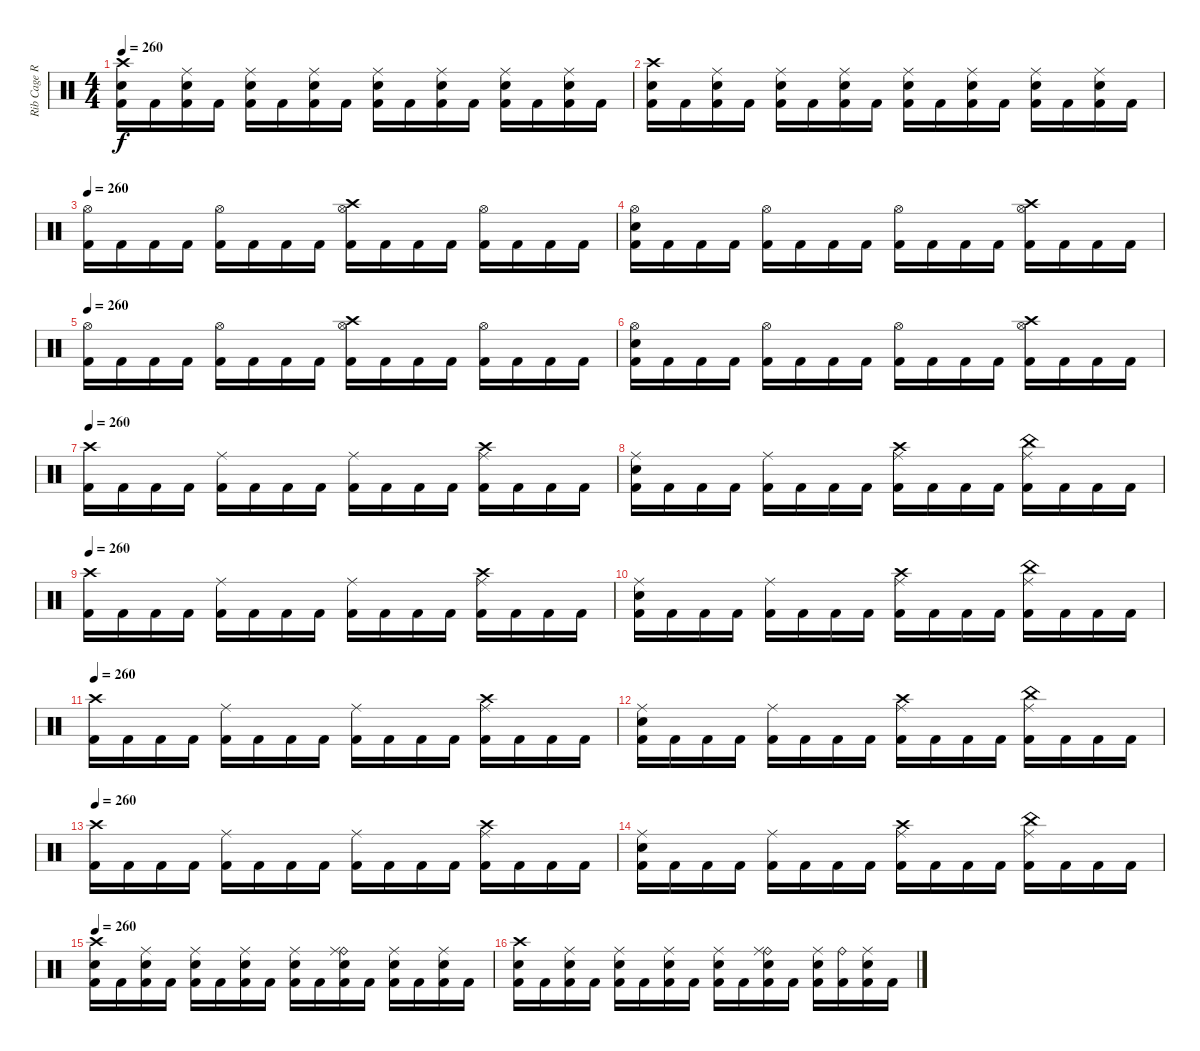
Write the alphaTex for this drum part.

\track ("Rib Cage Rupturing God Stomping Cremator" "Rib Cage R") {instrument percussion}
\staff {score}
\articulation defaults
\ts (4 4)
\tempo 260
\clef neutral
\ks c
("Crash high (hit)" "Electric Snare (hit)" "Kick (hit) 2").16{dy f} "Kick (hit) 2".16 ("Ride (middle)" "Electric Snare (hit)" "Kick (hit) 2").16 "Kick (hit) 2".16 ("Ride (middle)" "Electric Snare (hit)" "Kick (hit) 2").16 "Kick (hit) 2".16 ("Ride (middle)" "Electric Snare (hit)" "Kick (hit) 2").16 "Kick (hit) 2".16 ("Ride (middle)" "Electric Snare (hit)" "Kick (hit) 2").16 "Kick (hit) 2".16 ("Ride (middle)" "Electric Snare (hit)" "Kick (hit) 2").16 "Kick (hit) 2".16 ("Ride (middle)" "Electric Snare (hit)" "Kick (hit) 2").16 "Kick (hit) 2".16 ("Ride (middle)" "Electric Snare (hit)" "Kick (hit) 2").16 "Kick (hit) 2".16 |
("Crash high (hit)" "Electric Snare (hit)" "Kick (hit) 2").16 "Kick (hit) 2".16 ("Ride (middle)" "Electric Snare (hit)" "Kick (hit) 2").16 "Kick (hit) 2".16 ("Ride (middle)" "Electric Snare (hit)" "Kick (hit) 2").16 "Kick (hit) 2".16 ("Ride (middle)" "Electric Snare (hit)" "Kick (hit) 2").16 "Kick (hit) 2".16 ("Ride (middle)" "Electric Snare (hit)" "Kick (hit) 2").16 "Kick (hit) 2".16 ("Ride (middle)" "Electric Snare (hit)" "Kick (hit) 2").16 "Kick (hit) 2".16 ("Ride (middle)" "Electric Snare (hit)" "Kick (hit) 2").16 "Kick (hit) 2".16 ("Ride (middle)" "Electric Snare (hit)" "Kick (hit) 2").16 "Kick (hit) 2".16 |
\tempo 260
("Hi-Hat (open)" "Kick (hit) 2").16 "Kick (hit) 2".16 "Kick (hit) 2".16 "Kick (hit) 2".16 ("Hi-Hat (open)" "Kick (hit) 2").16 "Kick (hit) 2".16 "Kick (hit) 2".16 "Kick (hit) 2".16 ("Crash high (hit)" "Hi-Hat (open)" "Kick (hit) 2").16 "Kick (hit) 2".16 "Kick (hit) 2".16 "Kick (hit) 2".16 ("Hi-Hat (open)" "Kick (hit) 2").16 "Kick (hit) 2".16 "Kick (hit) 2".16 "Kick (hit) 2".16 |
("Hi-Hat (open)" "Electric Snare (hit)" "Kick (hit) 2").16 "Kick (hit) 2".16 "Kick (hit) 2".16 "Kick (hit) 2".16 ("Hi-Hat (open)" "Kick (hit) 2").16 "Kick (hit) 2".16 "Kick (hit) 2".16 "Kick (hit) 2".16 ("Hi-Hat (open)" "Kick (hit) 2").16 "Kick (hit) 2".16 "Kick (hit) 2".16 "Kick (hit) 2".16 ("Crash high (hit)" "Hi-Hat (open)" "Kick (hit) 2").16 "Kick (hit) 2".16 "Kick (hit) 2".16 "Kick (hit) 2".16 |
\tempo 260
("Hi-Hat (open)" "Kick (hit) 2").16 "Kick (hit) 2".16 "Kick (hit) 2".16 "Kick (hit) 2".16 ("Hi-Hat (open)" "Kick (hit) 2").16 "Kick (hit) 2".16 "Kick (hit) 2".16 "Kick (hit) 2".16 ("Crash high (hit)" "Hi-Hat (open)" "Kick (hit) 2").16 "Kick (hit) 2".16 "Kick (hit) 2".16 "Kick (hit) 2".16 ("Hi-Hat (open)" "Kick (hit) 2").16 "Kick (hit) 2".16 "Kick (hit) 2".16 "Kick (hit) 2".16 |
("Hi-Hat (open)" "Electric Snare (hit)" "Kick (hit) 2").16 "Kick (hit) 2".16 "Kick (hit) 2".16 "Kick (hit) 2".16 ("Hi-Hat (open)" "Kick (hit) 2").16 "Kick (hit) 2".16 "Kick (hit) 2".16 "Kick (hit) 2".16 ("Hi-Hat (open)" "Kick (hit) 2").16 "Kick (hit) 2".16 "Kick (hit) 2".16 "Kick (hit) 2".16 ("Crash high (hit)" "Hi-Hat (open)" "Kick (hit) 2").16 "Kick (hit) 2".16 "Kick (hit) 2".16 "Kick (hit) 2".16 |
\tempo 260
("Crash high (hit)" "Kick (hit) 2").16 "Kick (hit) 2".16 "Kick (hit) 2".16 "Kick (hit) 2".16 ("Ride (middle)" "Kick (hit) 2").16 "Kick (hit) 2".16 "Kick (hit) 2".16 "Kick (hit) 2".16 ("Ride (middle)" "Kick (hit) 2").16 "Kick (hit) 2".16 "Kick (hit) 2".16 "Kick (hit) 2".16 ("Crash high (hit)" "Ride (middle)" "Kick (hit) 2").16 "Kick (hit) 2".16 "Kick (hit) 2".16 "Kick (hit) 2".16 |
("Ride (middle)" "Electric Snare (hit)" "Kick (hit) 2").16 "Kick (hit) 2".16 "Kick (hit) 2".16 "Kick (hit) 2".16 ("Ride (middle)" "Kick (hit) 2").16 "Kick (hit) 2".16 "Kick (hit) 2".16 "Kick (hit) 2".16 ("Crash high (hit)" "Ride (middle)" "Kick (hit) 2").16 "Kick (hit) 2".16 "Kick (hit) 2".16 "Kick (hit) 2".16 ("China (hit)" "Ride (middle)" "Kick (hit) 2").16 "Kick (hit) 2".16 "Kick (hit) 2".16 "Kick (hit) 2".16 |
\tempo 260
("Crash high (hit)" "Kick (hit) 2").16 "Kick (hit) 2".16 "Kick (hit) 2".16 "Kick (hit) 2".16 ("Ride (middle)" "Kick (hit) 2").16 "Kick (hit) 2".16 "Kick (hit) 2".16 "Kick (hit) 2".16 ("Ride (middle)" "Kick (hit) 2").16 "Kick (hit) 2".16 "Kick (hit) 2".16 "Kick (hit) 2".16 ("Crash high (hit)" "Ride (middle)" "Kick (hit) 2").16 "Kick (hit) 2".16 "Kick (hit) 2".16 "Kick (hit) 2".16 |
("Ride (middle)" "Electric Snare (hit)" "Kick (hit) 2").16 "Kick (hit) 2".16 "Kick (hit) 2".16 "Kick (hit) 2".16 ("Ride (middle)" "Kick (hit) 2").16 "Kick (hit) 2".16 "Kick (hit) 2".16 "Kick (hit) 2".16 ("Crash high (hit)" "Ride (middle)" "Kick (hit) 2").16 "Kick (hit) 2".16 "Kick (hit) 2".16 "Kick (hit) 2".16 ("China (hit)" "Ride (middle)" "Kick (hit) 2").16 "Kick (hit) 2".16 "Kick (hit) 2".16 "Kick (hit) 2".16 |
\tempo 260
("Crash high (hit)" "Kick (hit) 2").16 "Kick (hit) 2".16 "Kick (hit) 2".16 "Kick (hit) 2".16 ("Ride (middle)" "Kick (hit) 2").16 "Kick (hit) 2".16 "Kick (hit) 2".16 "Kick (hit) 2".16 ("Ride (middle)" "Kick (hit) 2").16 "Kick (hit) 2".16 "Kick (hit) 2".16 "Kick (hit) 2".16 ("Crash high (hit)" "Ride (middle)" "Kick (hit) 2").16 "Kick (hit) 2".16 "Kick (hit) 2".16 "Kick (hit) 2".16 |
("Ride (middle)" "Electric Snare (hit)" "Kick (hit) 2").16 "Kick (hit) 2".16 "Kick (hit) 2".16 "Kick (hit) 2".16 ("Ride (middle)" "Kick (hit) 2").16 "Kick (hit) 2".16 "Kick (hit) 2".16 "Kick (hit) 2".16 ("Crash high (hit)" "Ride (middle)" "Kick (hit) 2").16 "Kick (hit) 2".16 "Kick (hit) 2".16 "Kick (hit) 2".16 ("China (hit)" "Ride (middle)" "Kick (hit) 2").16 "Kick (hit) 2".16 "Kick (hit) 2".16 "Kick (hit) 2".16 |
\tempo 260
("Crash high (hit)" "Kick (hit) 2").16 "Kick (hit) 2".16 "Kick (hit) 2".16 "Kick (hit) 2".16 ("Ride (middle)" "Kick (hit) 2").16 "Kick (hit) 2".16 "Kick (hit) 2".16 "Kick (hit) 2".16 ("Ride (middle)" "Kick (hit) 2").16 "Kick (hit) 2".16 "Kick (hit) 2".16 "Kick (hit) 2".16 ("Crash high (hit)" "Ride (middle)" "Kick (hit) 2").16 "Kick (hit) 2".16 "Kick (hit) 2".16 "Kick (hit) 2".16 |
("Ride (middle)" "Electric Snare (hit)" "Kick (hit) 2").16 "Kick (hit) 2".16 "Kick (hit) 2".16 "Kick (hit) 2".16 ("Ride (middle)" "Kick (hit) 2").16 "Kick (hit) 2".16 "Kick (hit) 2".16 "Kick (hit) 2".16 ("Crash high (hit)" "Ride (middle)" "Kick (hit) 2").16 "Kick (hit) 2".16 "Kick (hit) 2".16 "Kick (hit) 2".16 ("China (hit)" "Ride (middle)" "Kick (hit) 2").16 "Kick (hit) 2".16 "Kick (hit) 2".16 "Kick (hit) 2".16 |
\tempo 260
("Crash high (hit)" "Electric Snare (hit)" "Kick (hit) 2").16 "Kick (hit) 2".16 ("Ride (middle)" "Electric Snare (hit)" "Kick (hit) 2").16 "Kick (hit) 2".16 ("Ride (middle)" "Electric Snare (hit)" "Kick (hit) 2").16 "Kick (hit) 2".16 ("Ride (middle)" "Electric Snare (hit)" "Kick (hit) 2").16 "Kick (hit) 2".16 ("Ride (middle)" "Electric Snare (hit)" "Kick (hit) 2").16 "Kick (hit) 2".16 ("Ride (bell)" "Ride (middle)" "Electric Snare (hit)" "Kick (hit) 2").16 "Kick (hit) 2".16 ("Ride (middle)" "Electric Snare (hit)" "Kick (hit) 2").16 "Kick (hit) 2".16 ("Ride (middle)" "Electric Snare (hit)" "Kick (hit) 2").16 "Kick (hit) 2".16 |
("Crash high (hit)" "Electric Snare (hit)" "Kick (hit) 2").16 "Kick (hit) 2".16 ("Ride (middle)" "Electric Snare (hit)" "Kick (hit) 2").16 "Kick (hit) 2".16 ("Ride (middle)" "Electric Snare (hit)" "Kick (hit) 2").16 "Kick (hit) 2".16 ("Ride (middle)" "Electric Snare (hit)" "Kick (hit) 2").16 "Kick (hit) 2".16 ("Ride (middle)" "Electric Snare (hit)" "Kick (hit) 2").16 "Kick (hit) 2".16 ("Ride (bell)" "Ride (middle)" "Electric Snare (hit)" "Kick (hit) 2").16 "Kick (hit) 2".16 ("Ride (middle)" "Electric Snare (hit)" "Kick (hit) 2").16 ("Ride (bell)" "Kick (hit) 2").16 ("Ride (middle)" "Electric Snare (hit)" "Kick (hit) 2").16 "Kick (hit) 2".16
